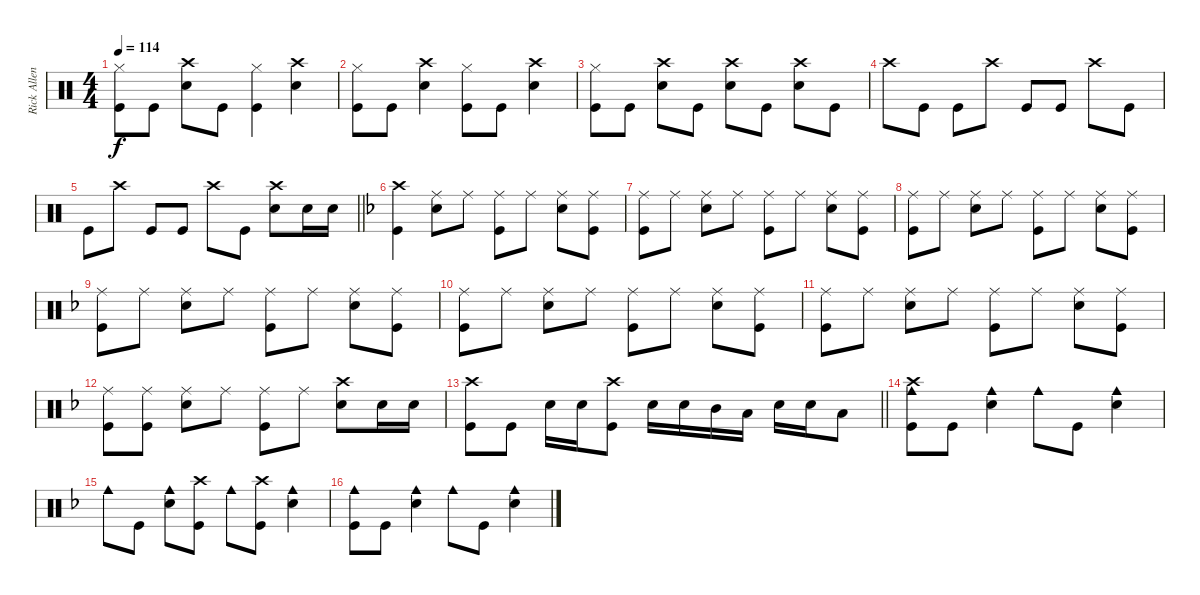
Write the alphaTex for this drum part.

\track ("Rick Allen" "Rick Allen") {instrument percussion}
\staff {score}
\articulation defaults
\ts (4 4)
\tempo 114
\clef neutral
\ks aminor
("Hi-Hat (closed)" "Kick (hit)").8{dy f} "Kick (hit)".8 ("Crash high (hit)" "Snare (hit) 2").8 "Kick (hit)".8 ("Hi-Hat (closed)" "Kick (hit)").4 ("Crash high (hit)" "Snare (hit) 2").4 |
("Hi-Hat (closed)" "Kick (hit)").8 "Kick (hit)".8 ("Crash high (hit)" "Snare (hit) 2").4 ("Hi-Hat (closed)" "Kick (hit)").8 "Kick (hit)".8 ("Crash high (hit)" "Snare (hit) 2").4 |
("Hi-Hat (closed)" "Kick (hit)").8 "Kick (hit)".8 ("Crash high (hit)" "Snare (hit) 2").8 "Kick (hit)".8 ("Crash high (hit)" "Snare (hit) 2").8 "Kick (hit)".8 ("Crash high (hit)" "Snare (hit) 2").8 "Kick (hit)".8 |
"Crash high (hit)".8 "Kick (hit)".8 "Kick (hit)".8 "Crash high (hit)".8 "Kick (hit)".8 "Kick (hit)".8 "Crash high (hit)".8 "Kick (hit)".8 |
\barLineRight lightlight "Kick (hit)".8 "Crash high (hit)".8 "Kick (hit)".8 "Kick (hit)".8 "Crash high (hit)".8 "Kick (hit)".8
("Crash high (hit)" "Snare (hit) 2").8 "Snare (hit) 2".16 "Snare (hit) 2".16 |
\ks dminor
("Crash high (hit)" "Kick (hit)").4 ("Ride (middle)" "Snare (hit) 2").8 "Ride (middle)".8 ("Ride (middle)" "Kick (hit)").8 "Ride (middle)".8 ("Ride (middle)" "Snare (hit) 2").8 ("Ride (middle)" "Kick (hit)").8 |
("Ride (middle)" "Kick (hit)").8 "Ride (middle)".8 ("Ride (middle)" "Snare (hit) 2").8 "Ride (middle)".8 ("Ride (middle)" "Kick (hit)").8 "Ride (middle)".8 ("Ride (middle)" "Snare (hit) 2").8 ("Ride (middle)" "Kick (hit)").8 |
("Ride (middle)" "Kick (hit)").8 "Ride (middle)".8 ("Ride (middle)" "Snare (hit) 2").8 "Ride (middle)".8 ("Ride (middle)" "Kick (hit)").8 "Ride (middle)".8 ("Ride (middle)" "Snare (hit) 2").8 ("Ride (middle)" "Kick (hit)").8 |
("Ride (middle)" "Kick (hit)").8 "Ride (middle)".8 ("Ride (middle)" "Snare (hit) 2").8 "Ride (middle)".8 ("Ride (middle)" "Kick (hit)").8 "Ride (middle)".8 ("Ride (middle)" "Snare (hit) 2").8 ("Ride (middle)" "Kick (hit)").8 |
("Ride (middle)" "Kick (hit)").8 "Ride (middle)".8 ("Ride (middle)" "Snare (hit) 2").8 "Ride (middle)".8 ("Ride (middle)" "Kick (hit)").8 "Ride (middle)".8 ("Ride (middle)" "Snare (hit) 2").8 ("Ride (middle)" "Kick (hit)").8 |
("Ride (middle)" "Kick (hit)").8 "Ride (middle)".8 ("Ride (middle)" "Snare (hit) 2").8 "Ride (middle)".8 ("Ride (middle)" "Kick (hit)").8 "Ride (middle)".8 ("Ride (middle)" "Snare (hit) 2").8 ("Ride (middle)" "Kick (hit)").8 |
("Ride (middle)" "Kick (hit)").8 ("Ride (middle)" "Kick (hit)").8 ("Ride (middle)" "Snare (hit) 2").8 "Ride (middle)".8 ("Ride (middle)" "Kick (hit)").8 "Ride (middle)".8 ("Crash high (hit)" "Snare (hit) 2").8 "Snare (hit) 2".16 "Snare (hit) 2".16 |
\barLineRight lightlight
("Crash high (hit)" "Kick (hit)").8 "Kick (hit)".8 "Snare (hit) 2".16 "Snare (hit) 2".16 ("Crash high (hit)" "Kick (hit)").8 "Snare (hit) 2".16 "Snare (hit) 2".16 "Mid Tom (hit)".16 "Low Tom (hit)".16 "Snare (hit) 2".16 "Snare (hit) 2".16 "Low Tom (hit)".8 |
("Cowbell medium (hit)" "Crash high (hit)" "Kick (hit)").8 "Kick (hit)".8 ("Cowbell medium (hit)" "Snare (hit) 2").4 "Cowbell medium (hit)".8 "Kick (hit)".8 ("Cowbell medium (hit)" "Snare (hit) 2").4 |
"Cowbell medium (hit)".8 "Kick (hit)".8 ("Cowbell medium (hit)" "Snare (hit) 2").8 ("Crash high (hit)" "Kick (hit)").8 "Cowbell medium (hit)".8 ("Crash high (hit)" "Kick (hit)").8 ("Cowbell medium (hit)" "Snare (hit) 2").4 |
("Cowbell medium (hit)" "Kick (hit)").8 "Kick (hit)".8 ("Cowbell medium (hit)" "Snare (hit) 2").4 "Cowbell medium (hit)".8 "Kick (hit)".8 ("Cowbell medium (hit)" "Snare (hit) 2").4
